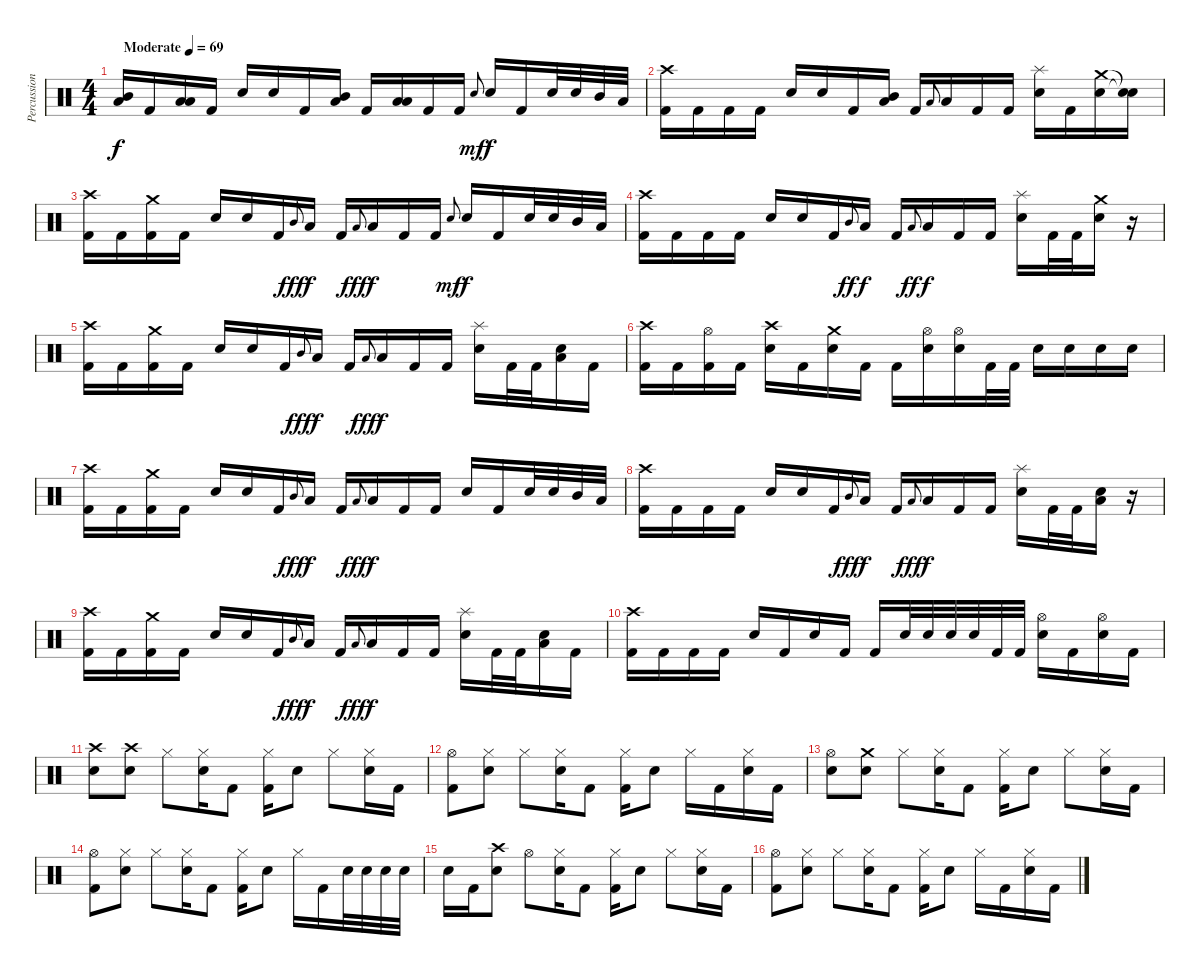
\track ("Percussion" "Percussion") {instrument percussion}
\staff {score}
\articulation defaults
\ts (4 4)
\tempo (69 "Moderate")
\clef neutral
\ks c
("Low Floor Tom (hit)" "Mid Tom (hit)").16{dy f} "Kick (hit) 2".16 ("Low Floor Tom (hit)" "Low Tom (hit)").16 "Kick (hit) 2".16 "Electric Snare (hit)".16 "Electric Snare (hit)".16 "Kick (hit) 2".16 ("Low Floor Tom (hit)" "Mid Tom (hit)").16 "Kick (hit) 2".16 ("Low Floor Tom (hit)" "Low Tom (hit)").16 "Kick (hit) 2".16 "Kick (hit) 2".16 "Electric Snare (hit)".8{gr onbeat dy mf} "Electric Snare (hit)".16{dy f} "Kick (hit) 2".16 "Electric Snare (hit)".32 "Electric Snare (hit)".32 "Mid Tom (hit)".32 "Low Tom (hit)".32 |
("Crash high (hit)" "Kick (hit) 2").16 "Kick (hit) 2".16 "Kick (hit) 2".16 "Kick (hit) 2".16 "Electric Snare (hit)".16 "Electric Snare (hit)".16 "Kick (hit) 2".16 ("Low Floor Tom (hit)" "Mid Tom (hit)").16 "Kick (hit) 2".16 "Low Floor Tom (hit)".8{gr onbeat} "Low Floor Tom (hit)".16 "Kick (hit) 2".16 "Kick (hit) 2".16 ("Splash (hit)" "Electric Snare (hit)").16 "Kick (hit) 2".16 ("Crash medium (hit)" "Electric Snare (hit)").16 ("Snare (hit)"{t} "Snare (hit)"{t}).16 |
("Crash high (hit)" "Kick (hit) 2").16 "Kick (hit) 2".16 ("Crash medium (hit)" "Kick (hit) 2").16 "Kick (hit) 2".16 "Electric Snare (hit)".16 "Electric Snare (hit)".16 "Kick (hit) 2".16 "Mid Tom (hit)".8{gr onbeat dy fff} "Low Floor Tom (hit)".16{dy f} "Kick (hit) 2".16 "Low Tom (hit)".8{gr onbeat dy fff} "Low Floor Tom (hit)".16{dy f} "Kick (hit) 2".16 "Kick (hit) 2".16 "Electric Snare (hit)".8{gr onbeat dy mf} "Electric Snare (hit)".16{dy f} "Kick (hit) 2".16 "Electric Snare (hit)".32 "Electric Snare (hit)".32 "Mid Tom (hit)".32 "Low Tom (hit)".32 |
("Crash high (hit)" "Kick (hit) 2").16 "Kick (hit) 2".16 "Kick (hit) 2".16 "Kick (hit) 2".16 "Electric Snare (hit)".16 "Electric Snare (hit)".16 "Kick (hit) 2".16 "Mid Tom (hit)".8{gr onbeat dy ff} "Low Floor Tom (hit)".16{dy f} "Kick (hit) 2".16 "Low Tom (hit)".8{gr onbeat dy ff} "Low Floor Tom (hit)".16{dy f} "Kick (hit) 2".16 "Kick (hit) 2".16 ("Splash (hit)" "Electric Snare (hit)").16 "Kick (hit) 2".32 "Kick (hit) 2".32 ("Crash medium (hit)" "Electric Snare (hit)").16 r.16 |
("Crash high (hit)" "Kick (hit) 2").16 "Kick (hit) 2".16 ("Crash medium (hit)" "Kick (hit) 2").16 "Kick (hit) 2".16 "Electric Snare (hit)".16 "Electric Snare (hit)".16 "Kick (hit) 2".16 "Mid Tom (hit)".8{gr onbeat dy fff} "Low Floor Tom (hit)".16{dy f} "Kick (hit) 2".16 "Low Tom (hit)".8{gr onbeat dy fff} "Low Floor Tom (hit)".16{dy f} "Kick (hit) 2".16 "Kick (hit) 2".16 ("Splash (hit)" "Electric Snare (hit)").16 "Kick (hit) 2".32 "Kick (hit) 2".32 ("Low Floor Tom (hit)" "Electric Snare (hit)").16 "Kick (hit) 2".16 |
("Crash high (hit)" "Kick (hit) 2").16 "Kick (hit) 2".16 ("Hi-Hat (open)" "Kick (hit) 2").16 "Kick (hit) 2".16 ("Crash high (hit)" "Electric Snare (hit)").16 "Kick (hit) 2".16 ("Crash medium (hit)" "Electric Snare (hit)").16 "Kick (hit) 2".16 "Kick (hit) 2".16 ("Hi-Hat (open)" "Electric Snare (hit)").16 ("Hi-Hat (open)" "Electric Snare (hit)").16 "Kick (hit) 2".32 "Kick (hit) 2".32 "Electric Snare (hit)".16 "Electric Snare (hit)".16 "Electric Snare (hit)".16 "Electric Snare (hit)".16 |
("Crash high (hit)" "Kick (hit) 2").16 "Kick (hit) 2".16 ("Crash medium (hit)" "Kick (hit) 2").16 "Kick (hit) 2".16 "Electric Snare (hit)".16 "Electric Snare (hit)".16 "Kick (hit) 2".16 "Mid Tom (hit)".8{gr onbeat dy fff} "Low Floor Tom (hit)".16{dy f} "Kick (hit) 2".16 "Low Tom (hit)".8{gr onbeat dy fff} "Low Floor Tom (hit)".16{dy f} "Kick (hit) 2".16 "Kick (hit) 2".16 "Electric Snare (hit)".16 "Kick (hit) 2".16 "Electric Snare (hit)".32 "Electric Snare (hit)".32 "Mid Tom (hit)".32 "Low Tom (hit)".32 |
("Crash high (hit)" "Kick (hit) 2").16 "Kick (hit) 2".16 "Kick (hit) 2".16 "Kick (hit) 2".16 "Electric Snare (hit)".16 "Electric Snare (hit)".16 "Kick (hit) 2".16 "Mid Tom (hit)".8{gr onbeat dy fff} "Low Floor Tom (hit)".16{dy f} "Kick (hit) 2".16 "Low Tom (hit)".8{gr onbeat dy fff} "Low Floor Tom (hit)".16{dy f} "Kick (hit) 2".16 "Kick (hit) 2".16 ("Splash (hit)" "Electric Snare (hit)").16 "Kick (hit) 2".32 "Kick (hit) 2".32 ("Low Floor Tom (hit)" "Electric Snare (hit)").16 r.16 |
("Crash high (hit)" "Kick (hit) 2").16 "Kick (hit) 2".16 ("Crash medium (hit)" "Kick (hit) 2").16 "Kick (hit) 2".16 "Electric Snare (hit)".16 "Electric Snare (hit)".16 "Kick (hit) 2".16 "Mid Tom (hit)".8{gr onbeat dy fff} "Low Floor Tom (hit)".16{dy f} "Kick (hit) 2".16 "Low Tom (hit)".8{gr onbeat dy fff} "Low Floor Tom (hit)".16{dy f} "Kick (hit) 2".16 "Kick (hit) 2".16 ("Splash (hit)" "Electric Snare (hit)").16 "Kick (hit) 2".32 "Kick (hit) 2".32 ("Low Floor Tom (hit)" "Electric Snare (hit)").16 "Kick (hit) 2".16 |
("Crash high (hit)" "Kick (hit) 2").16 "Kick (hit) 2".16 "Kick (hit) 2".16 "Kick (hit) 2".16 "Electric Snare (hit)".16 "Kick (hit) 2".16 "Electric Snare (hit)".16 "Kick (hit) 2".16 "Kick (hit) 2".16 "Electric Snare (hit)".32 "Electric Snare (hit)".32 "Electric Snare (hit)".32 "Electric Snare (hit)".32 "Kick (hit) 2".32 "Kick (hit) 2".32 ("Hi-Hat (open)" "Electric Snare (hit)").16 "Kick (hit) 2".16 ("Hi-Hat (open)" "Electric Snare (hit)").16 "Kick (hit) 2".16 |
("Crash high (hit)" "Electric Snare (hit)").8 ("Crash high (hit)" "Electric Snare (hit)").8 "Hi-Hat (closed)".8 ("Hi-Hat (closed)" "Electric Snare (hit)").16 "Kick (hit) 2".8 ("Hi-Hat (closed)" "Kick (hit) 2").16 "Electric Snare (hit)".8 "Hi-Hat (closed)".8 ("Hi-Hat (closed)" "Electric Snare (hit)").16 "Kick (hit) 2".16 |
("Hi-Hat (open)" "Kick (hit) 2").8 ("Hi-Hat (closed)" "Electric Snare (hit)").8 "Hi-Hat (closed)".8 ("Hi-Hat (closed)" "Electric Snare (hit)").16 "Kick (hit) 2".8 ("Hi-Hat (closed)" "Kick (hit) 2").16 "Electric Snare (hit)".8 "Hi-Hat (closed)".16 "Kick (hit) 2".16 ("Hi-Hat (closed)" "Electric Snare (hit)").16 "Kick (hit) 2".16 |
("Hi-Hat (open)" "Electric Snare (hit)").8 ("Crash medium (hit)" "Electric Snare (hit)").8 "Hi-Hat (closed)".8 ("Hi-Hat (closed)" "Electric Snare (hit)").16 "Kick (hit) 2".8 ("Hi-Hat (closed)" "Kick (hit) 2").16 "Electric Snare (hit)".8 "Hi-Hat (closed)".8 ("Hi-Hat (closed)" "Electric Snare (hit)").16 "Kick (hit) 2".16 |
("Hi-Hat (open)" "Kick (hit) 2").8 ("Hi-Hat (closed)" "Electric Snare (hit)").8 "Hi-Hat (closed)".8 ("Hi-Hat (closed)" "Electric Snare (hit)").16 "Kick (hit) 2".8 ("Hi-Hat (closed)" "Kick (hit) 2").16 "Electric Snare (hit)".8 "Hi-Hat (closed)".16 "Kick (hit) 2".16 "Electric Snare (hit)".32 "Electric Snare (hit)".32 "Electric Snare (hit)".32 "Electric Snare (hit)".32 |
"Electric Snare (hit)".16 "Kick (hit) 2".16 ("Crash high (hit)" "Electric Snare (hit)").8 "Hi-Hat (open)".8 ("Hi-Hat (closed)" "Electric Snare (hit)").16 "Kick (hit) 2".8 ("Hi-Hat (closed)" "Kick (hit) 2").16 "Electric Snare (hit)".8 "Hi-Hat (closed)".8 ("Hi-Hat (closed)" "Electric Snare (hit)").16 "Kick (hit) 2".16 |
("Hi-Hat (open)" "Kick (hit) 2").8 ("Hi-Hat (closed)" "Electric Snare (hit)").8 "Hi-Hat (closed)".8 ("Hi-Hat (closed)" "Electric Snare (hit)").16 "Kick (hit) 2".8 ("Hi-Hat (closed)" "Kick (hit) 2").16 "Electric Snare (hit)".8 "Hi-Hat (closed)".16 "Kick (hit) 2".16 ("Hi-Hat (closed)" "Electric Snare (hit)").16 "Kick (hit) 2".16
